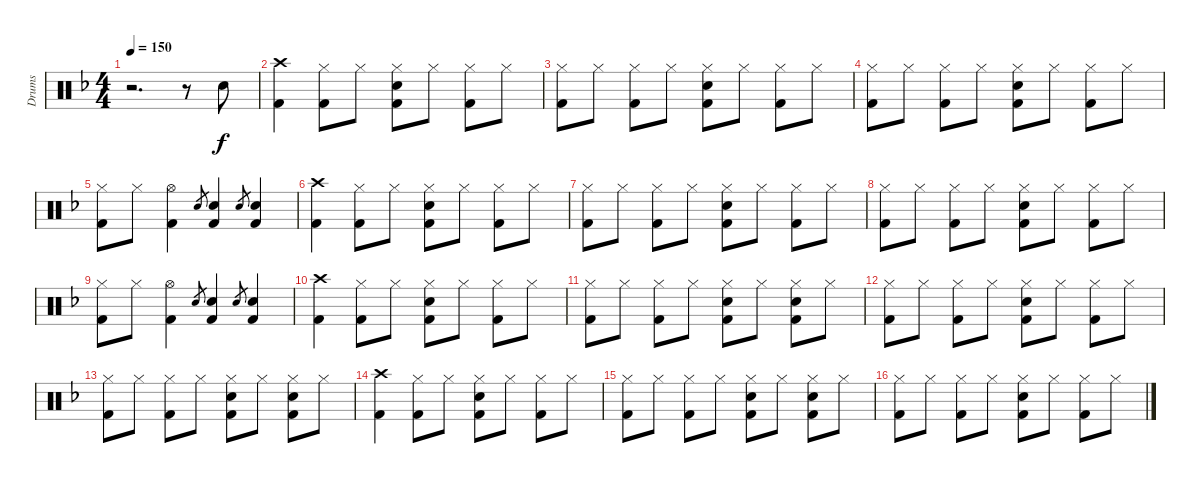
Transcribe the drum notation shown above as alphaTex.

\track ("Drums" "Drums") {instrument percussion}
\staff {score}
\articulation defaults
\ts (4 4)
\tempo 150
\clef neutral
\ks f
r.2{d dy f} r.8 "Electric Snare (hit)".8 |
("Crash high (hit)" "Kick (hit) 2").4 ("Hi-Hat (closed)" "Kick (hit) 2").8 "Hi-Hat (closed)".8 ("Hi-Hat (closed)" "Electric Snare (hit)" "Kick (hit) 2").8 "Hi-Hat (closed)".8 ("Hi-Hat (closed)" "Kick (hit) 2").8 "Hi-Hat (closed)".8 |
("Hi-Hat (closed)" "Kick (hit) 2").8 "Hi-Hat (closed)".8 ("Hi-Hat (closed)" "Kick (hit) 2").8 "Hi-Hat (closed)".8 ("Hi-Hat (closed)" "Electric Snare (hit)" "Kick (hit) 2").8 "Hi-Hat (closed)".8 ("Hi-Hat (closed)" "Kick (hit) 2").8 "Hi-Hat (closed)".8 |
("Hi-Hat (closed)" "Kick (hit) 2").8 "Hi-Hat (closed)".8 ("Hi-Hat (closed)" "Kick (hit) 2").8 "Hi-Hat (closed)".8 ("Hi-Hat (closed)" "Electric Snare (hit)" "Kick (hit) 2").8 "Hi-Hat (closed)".8 ("Hi-Hat (closed)" "Kick (hit) 2").8 "Hi-Hat (closed)".8 |
("Hi-Hat (closed)" "Kick (hit) 2").8 "Hi-Hat (closed)".8 ("Hi-Hat (open)" "Kick (hit) 2").4 "Electric Snare (hit)".8{gr} ("Electric Snare (hit)" "Kick (hit) 2").4 "Electric Snare (hit)".8{gr} ("Electric Snare (hit)" "Kick (hit) 2").4 |
("Crash high (hit)" "Kick (hit) 2").4 ("Hi-Hat (closed)" "Kick (hit) 2").8 "Hi-Hat (closed)".8 ("Hi-Hat (closed)" "Electric Snare (hit)" "Kick (hit) 2").8 "Hi-Hat (closed)".8 ("Hi-Hat (closed)" "Kick (hit) 2").8 "Hi-Hat (closed)".8 |
("Hi-Hat (closed)" "Kick (hit) 2").8 "Hi-Hat (closed)".8 ("Hi-Hat (closed)" "Kick (hit) 2").8 "Hi-Hat (closed)".8 ("Hi-Hat (closed)" "Electric Snare (hit)" "Kick (hit) 2").8 "Hi-Hat (closed)".8 ("Hi-Hat (closed)" "Kick (hit) 2").8 "Hi-Hat (closed)".8 |
("Hi-Hat (closed)" "Kick (hit) 2").8 "Hi-Hat (closed)".8 ("Hi-Hat (closed)" "Kick (hit) 2").8 "Hi-Hat (closed)".8 ("Hi-Hat (closed)" "Electric Snare (hit)" "Kick (hit) 2").8 "Hi-Hat (closed)".8 ("Hi-Hat (closed)" "Kick (hit) 2").8 "Hi-Hat (closed)".8 |
("Hi-Hat (closed)" "Kick (hit) 2").8 "Hi-Hat (closed)".8 ("Hi-Hat (open)" "Kick (hit) 2").4 "Electric Snare (hit)".8{gr} ("Electric Snare (hit)" "Kick (hit) 2").4 "Electric Snare (hit)".8{gr} ("Electric Snare (hit)" "Kick (hit) 2").4 |
("Crash high (hit)" "Kick (hit) 2").4 ("Hi-Hat (closed)" "Kick (hit) 2").8 "Hi-Hat (closed)".8 ("Hi-Hat (closed)" "Electric Snare (hit)" "Kick (hit) 2").8 "Hi-Hat (closed)".8 ("Hi-Hat (closed)" "Kick (hit) 2").8 "Hi-Hat (closed)".8 |
("Hi-Hat (closed)" "Kick (hit) 2").8 "Hi-Hat (closed)".8 ("Hi-Hat (closed)" "Kick (hit) 2").8 "Hi-Hat (closed)".8 ("Hi-Hat (closed)" "Electric Snare (hit)" "Kick (hit) 2").8 "Hi-Hat (closed)".8 ("Hi-Hat (closed)" "Electric Snare (hit)" "Kick (hit) 2").8 "Hi-Hat (closed)".8 |
("Hi-Hat (closed)" "Kick (hit) 2").8 "Hi-Hat (closed)".8 ("Hi-Hat (closed)" "Kick (hit) 2").8 "Hi-Hat (closed)".8 ("Hi-Hat (closed)" "Electric Snare (hit)" "Kick (hit) 2").8 "Hi-Hat (closed)".8 ("Hi-Hat (closed)" "Kick (hit) 2").8 "Hi-Hat (closed)".8 |
("Hi-Hat (closed)" "Kick (hit) 2").8 "Hi-Hat (closed)".8 ("Hi-Hat (closed)" "Kick (hit) 2").8 "Hi-Hat (closed)".8 ("Hi-Hat (closed)" "Electric Snare (hit)" "Kick (hit) 2").8 "Hi-Hat (closed)".8 ("Hi-Hat (closed)" "Electric Snare (hit)" "Kick (hit) 2").8 "Hi-Hat (closed)".8 |
("Crash high (hit)" "Kick (hit) 2").4 ("Hi-Hat (closed)" "Kick (hit) 2").8 "Hi-Hat (closed)".8 ("Hi-Hat (closed)" "Electric Snare (hit)" "Kick (hit) 2").8 "Hi-Hat (closed)".8 ("Hi-Hat (closed)" "Kick (hit) 2").8 "Hi-Hat (closed)".8 |
("Hi-Hat (closed)" "Kick (hit) 2").8 "Hi-Hat (closed)".8 ("Hi-Hat (closed)" "Kick (hit) 2").8 "Hi-Hat (closed)".8 ("Hi-Hat (closed)" "Electric Snare (hit)" "Kick (hit) 2").8 "Hi-Hat (closed)".8 ("Hi-Hat (closed)" "Electric Snare (hit)" "Kick (hit) 2").8 "Hi-Hat (closed)".8 |
("Hi-Hat (closed)" "Kick (hit) 2").8 "Hi-Hat (closed)".8 ("Hi-Hat (closed)" "Kick (hit) 2").8 "Hi-Hat (closed)".8 ("Hi-Hat (closed)" "Electric Snare (hit)" "Kick (hit) 2").8 "Hi-Hat (closed)".8 ("Hi-Hat (closed)" "Kick (hit) 2").8 "Hi-Hat (closed)".8
